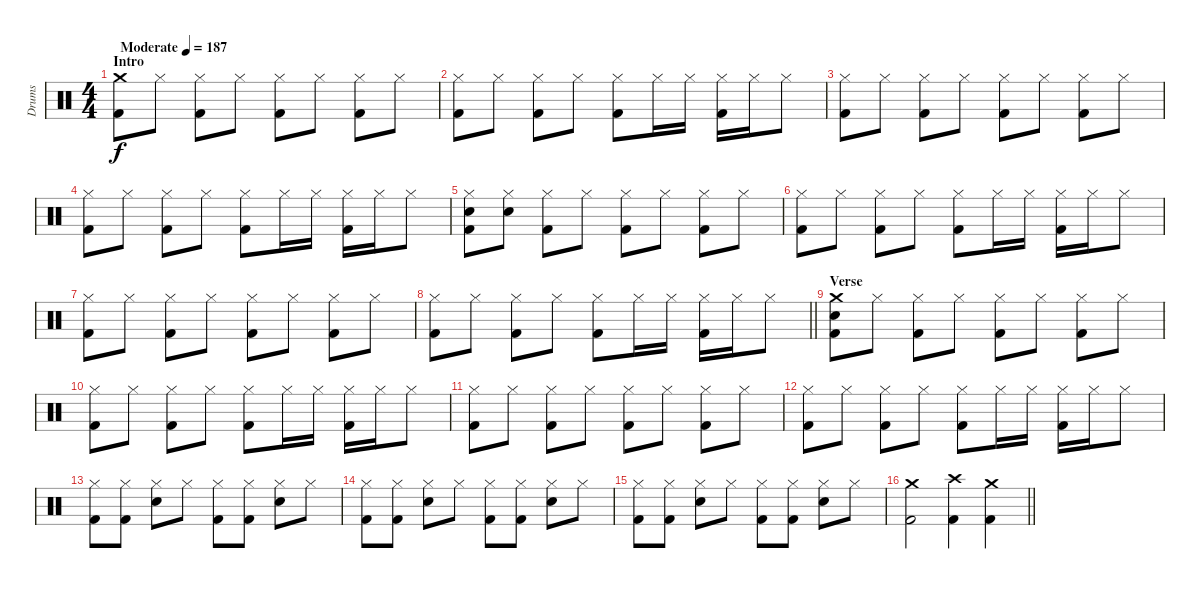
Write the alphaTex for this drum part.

\track ("Drums" "Drums") {instrument percussion}
\staff {score}
\articulation defaults
\ts (4 4)
\section ("" "Intro")
\tempo (187 "Moderate")
\clef neutral
\ks c
("Crash medium (hit)" "Kick (hit) 2").8{dy f} "Hi-Hat (closed)".8 ("Hi-Hat (closed)" "Kick (hit) 2").8 "Hi-Hat (closed)".8 ("Hi-Hat (closed)" "Kick (hit) 2").8 "Hi-Hat (closed)".8 ("Hi-Hat (closed)" "Kick (hit) 2").8 "Hi-Hat (closed)".8 |
("Hi-Hat (closed)" "Kick (hit) 2").8 "Hi-Hat (closed)".8 ("Hi-Hat (closed)" "Kick (hit) 2").8 "Hi-Hat (closed)".8 ("Hi-Hat (closed)" "Kick (hit) 2").8 "Hi-Hat (closed)".16 "Hi-Hat (closed)".16 ("Hi-Hat (closed)" "Kick (hit) 2").16 "Hi-Hat (closed)".16 "Hi-Hat (closed)".8 |
("Hi-Hat (closed)" "Kick (hit) 2").8 "Hi-Hat (closed)".8 ("Hi-Hat (closed)" "Kick (hit) 2").8 "Hi-Hat (closed)".8 ("Hi-Hat (closed)" "Kick (hit) 2").8 "Hi-Hat (closed)".8 ("Hi-Hat (closed)" "Kick (hit) 2").8 "Hi-Hat (closed)".8 |
("Hi-Hat (closed)" "Kick (hit) 2").8 "Hi-Hat (closed)".8 ("Hi-Hat (closed)" "Kick (hit) 2").8 "Hi-Hat (closed)".8 ("Hi-Hat (closed)" "Kick (hit) 2").8 "Hi-Hat (closed)".16 "Hi-Hat (closed)".16 ("Hi-Hat (closed)" "Kick (hit) 2").16 "Hi-Hat (closed)".16 "Hi-Hat (closed)".8 |
("Hi-Hat (closed)" "Electric Snare (hit)" "Kick (hit) 2").8 ("Hi-Hat (closed)" "Electric Snare (hit)").8 ("Hi-Hat (closed)" "Kick (hit) 2").8 "Hi-Hat (closed)".8 ("Hi-Hat (closed)" "Kick (hit) 2").8 "Hi-Hat (closed)".8 ("Hi-Hat (closed)" "Kick (hit) 2").8 "Hi-Hat (closed)".8 |
("Hi-Hat (closed)" "Kick (hit) 2").8 "Hi-Hat (closed)".8 ("Hi-Hat (closed)" "Kick (hit) 2").8 "Hi-Hat (closed)".8 ("Hi-Hat (closed)" "Kick (hit) 2").8 "Hi-Hat (closed)".16 "Hi-Hat (closed)".16 ("Hi-Hat (closed)" "Kick (hit) 2").16 "Hi-Hat (closed)".16 "Hi-Hat (closed)".8 |
("Hi-Hat (closed)" "Kick (hit) 2").8 "Hi-Hat (closed)".8 ("Hi-Hat (closed)" "Kick (hit) 2").8 "Hi-Hat (closed)".8 ("Hi-Hat (closed)" "Kick (hit) 2").8 "Hi-Hat (closed)".8 ("Hi-Hat (closed)" "Kick (hit) 2").8 "Hi-Hat (closed)".8 |
\barLineRight lightlight
("Hi-Hat (closed)" "Kick (hit) 2").8 "Hi-Hat (closed)".8 ("Hi-Hat (closed)" "Kick (hit) 2").8 "Hi-Hat (closed)".8 ("Hi-Hat (closed)" "Kick (hit) 2").8 "Hi-Hat (closed)".16 "Hi-Hat (closed)".16 ("Hi-Hat (closed)" "Kick (hit) 2").16 "Hi-Hat (closed)".16 "Hi-Hat (closed)".8 |
\section ("" "Verse")
("Crash medium (hit)" "Electric Snare (hit)" "Kick (hit) 2").8 "Hi-Hat (closed)".8 ("Hi-Hat (closed)" "Kick (hit) 2").8 "Hi-Hat (closed)".8 ("Hi-Hat (closed)" "Kick (hit) 2").8 "Hi-Hat (closed)".8 ("Hi-Hat (closed)" "Kick (hit) 2").8 "Hi-Hat (closed)".8 |
("Hi-Hat (closed)" "Kick (hit) 2").8 "Hi-Hat (closed)".8 ("Hi-Hat (closed)" "Kick (hit) 2").8 "Hi-Hat (closed)".8 ("Hi-Hat (closed)" "Kick (hit) 2").8 "Hi-Hat (closed)".16 "Hi-Hat (closed)".16 ("Hi-Hat (closed)" "Kick (hit) 2").16 "Hi-Hat (closed)".16 "Hi-Hat (closed)".8 |
("Hi-Hat (closed)" "Kick (hit) 2").8 "Hi-Hat (closed)".8 ("Hi-Hat (closed)" "Kick (hit) 2").8 "Hi-Hat (closed)".8 ("Hi-Hat (closed)" "Kick (hit) 2").8 "Hi-Hat (closed)".8 ("Hi-Hat (closed)" "Kick (hit) 2").8 "Hi-Hat (closed)".8 |
("Hi-Hat (closed)" "Kick (hit) 2").8 "Hi-Hat (closed)".8 ("Hi-Hat (closed)" "Kick (hit) 2").8 "Hi-Hat (closed)".8 ("Hi-Hat (closed)" "Kick (hit) 2").8 "Hi-Hat (closed)".16 "Hi-Hat (closed)".16 ("Hi-Hat (closed)" "Kick (hit) 2").16 "Hi-Hat (closed)".16 "Hi-Hat (closed)".8 |
("Hi-Hat (closed)" "Kick (hit) 2").8 ("Hi-Hat (closed)" "Kick (hit) 2").8 ("Hi-Hat (closed)" "Electric Snare (hit)").8 "Hi-Hat (closed)".8 ("Hi-Hat (closed)" "Kick (hit) 2").8 ("Hi-Hat (closed)" "Kick (hit) 2").8 ("Hi-Hat (closed)" "Electric Snare (hit)").8 "Hi-Hat (closed)".8 |
("Hi-Hat (closed)" "Kick (hit) 2").8 ("Hi-Hat (closed)" "Kick (hit) 2").8 ("Hi-Hat (closed)" "Electric Snare (hit)").8 "Hi-Hat (closed)".8 ("Hi-Hat (closed)" "Kick (hit) 2").8 ("Hi-Hat (closed)" "Kick (hit) 2").8 ("Hi-Hat (closed)" "Electric Snare (hit)").8 "Hi-Hat (closed)".8 |
("Hi-Hat (closed)" "Kick (hit) 2").8 ("Hi-Hat (closed)" "Kick (hit) 2").8 ("Hi-Hat (closed)" "Electric Snare (hit)").8 "Hi-Hat (closed)".8 ("Hi-Hat (closed)" "Kick (hit) 2").8 ("Hi-Hat (closed)" "Kick (hit) 2").8 ("Hi-Hat (closed)" "Electric Snare (hit)").8 "Hi-Hat (closed)".8 |
\barLineRight lightlight
("Crash medium (hit)" "Kick (hit) 2").2 ("Crash high (hit)" "Kick (hit) 2").4 ("Crash medium (hit)" "Kick (hit) 2").4
